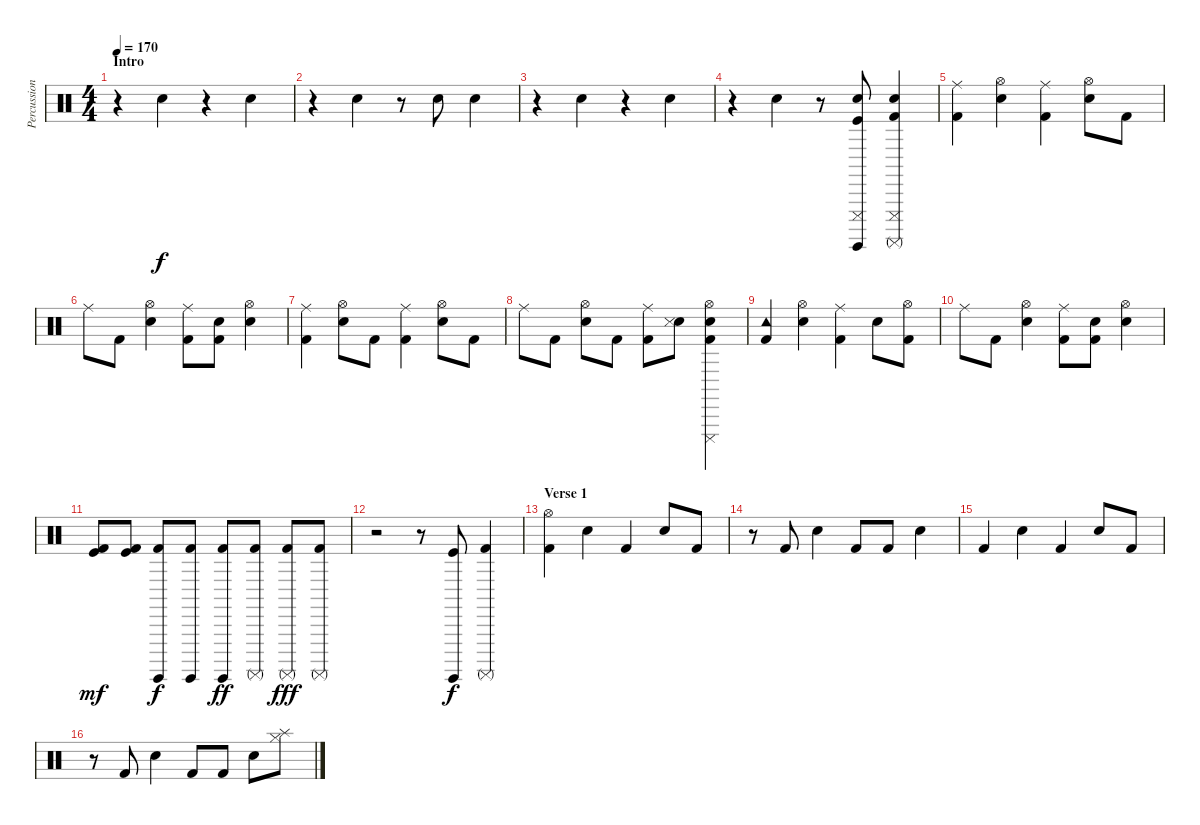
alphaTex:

\track ("Percussion" "Percussion") {instrument percussion}
\staff {score}
\articulation defaults
\ts (4 4)
\section ("" "Intro")
\tempo 170
\clef neutral
\ks c
r.4{dy f} "Hand Clap (hit)".4 r.4 "Hand Clap (hit)".4 |
r.4 "Hand Clap (hit)".4 r.8 "Hand Clap (hit)".8 "Hand Clap (hit)".4 |
r.4 "Hand Clap (hit)".4 r.4 "Hand Clap (hit)".4 |
r.4 "Hand Clap (hit)".4 r.8 ("Hand Clap (hit)" "Cuica (mute)" "Surdo (hit)" "Kick (hit)").8 ("Hand Clap (hit)" "Cuica (mute)" "Surdo (mute)" "Kick (hit) 2").4 |
("Ride (middle)" "Kick (hit) 2").4 ("Hand Clap (hit)" "Hi-Hat (open)").4 ("Ride (middle)" "Kick (hit) 2").4 ("Hand Clap (hit)" "Hi-Hat (open)").8 "Kick (hit) 2".8 |
"Ride (middle)".8 "Kick (hit) 2".8 ("Hand Clap (hit)" "Hi-Hat (open)").4 ("Ride (middle)" "Kick (hit) 2").8 ("Hand Clap (hit)" "Kick (hit) 2").8 ("Hand Clap (hit)" "Hi-Hat (open)").4 |
("Ride (middle)" "Kick (hit) 2").4 ("Hand Clap (hit)" "Hi-Hat (open)").8 "Kick (hit) 2".8 ("Ride (middle)" "Kick (hit) 2").4 ("Hand Clap (hit)" "Hi-Hat (open)").8 "Kick (hit) 2".8 |
"Ride (middle)".8 "Kick (hit) 2".8 ("Hand Clap (hit)" "Hi-Hat (open)").8 "Kick (hit) 2".8 ("Ride (middle)" "Kick (hit) 2").8 ("Hand Clap (hit)" "Metronome (hit)").8 ("Hand Clap (hit)" "Cuica (mute)" "Hi-Hat (open)" "Kick (hit) 2").4 |
("Tambourine (hit)" "Kick (hit) 2").4 ("Hand Clap (hit)" "Hi-Hat (open)").4 ("Ride (middle)" "Kick (hit) 2").4 "Hand Clap (hit)".8 ("Hi-Hat (open)" "Kick (hit) 2").8 |
"Ride (middle)".8 "Kick (hit) 2".8 ("Hand Clap (hit)" "Hi-Hat (open)").4 ("Ride (middle)" "Kick (hit) 2").8 ("Hand Clap (hit)" "Kick (hit) 2").8 ("Hand Clap (hit)" "Hi-Hat (open)").4 |
("Kick (hit)" "Kick (hit) 2").8{dy mf} ("Kick (hit)" "Kick (hit) 2").8 ("Surdo (hit)" "Kick (hit) 2").8{dy f} ("Surdo (hit)" "Kick (hit) 2").8 ("Surdo (hit)" "Kick (hit) 2").8{dy ff} ("Surdo (mute)" "Kick (hit) 2").8 ("Surdo (mute)" "Kick (hit) 2").8{dy fff} ("Surdo (mute)" "Kick (hit) 2").8 |
r.2 r.8 ("Surdo (hit)" "Kick (hit)").8{dy f} ("Surdo (mute)" "Kick (hit) 2").4 |
\section ("" "Verse 1")
("Hi-Hat (open)" "Kick (hit) 2").4 "Snare (hit) 2".4 "Kick (hit) 2".4 "Snare (hit) 2".8 "Kick (hit) 2".8 |
r.8 "Kick (hit) 2".8 "Snare (hit) 2".4 "Kick (hit) 2".8 "Kick (hit) 2".8 "Snare (hit) 2".4 |
"Kick (hit) 2".4 "Snare (hit) 2".4 "Kick (hit) 2".4 "Snare (hit) 2".8 "Kick (hit) 2".8 |
r.8 "Kick (hit) 2".8 "Snare (hit) 2".4 "Kick (hit) 2".8 "Kick (hit) 2".8 "Snare (hit) 2".8 ("Hi-Hat (closed)" "Splash (hit)").8
